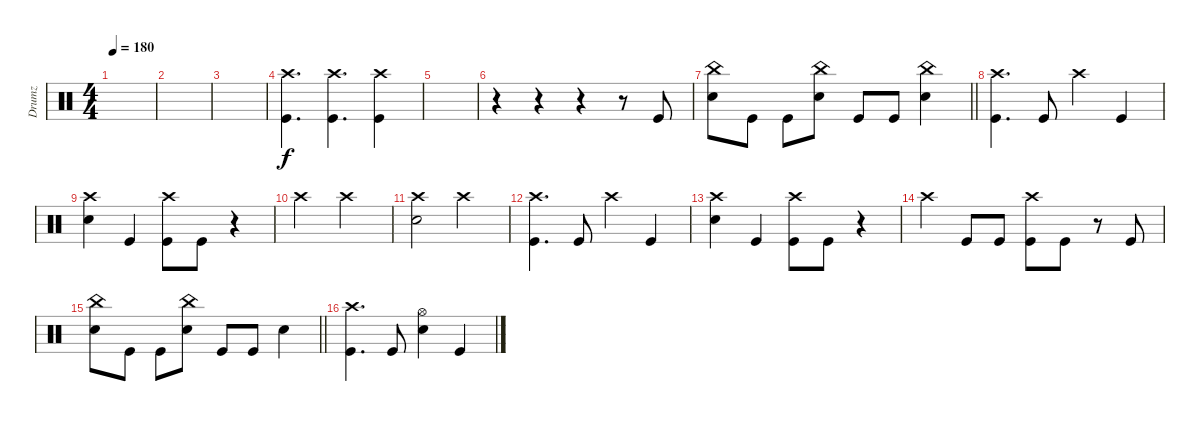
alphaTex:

\track ("Drumz" "Drumz") {instrument percussion}
\staff {score}
\articulation defaults
\ts (4 4)
\tempo 180
\clef neutral
\ks c
|
|
|
("Crash high (hit)" "Kick (hit)").4{d} ("Crash high (hit)" "Kick (hit)").4{d} ("Crash high (hit)" "Kick (hit)").4 |
|
r.4 r.4 r.4 r.8 "Kick (hit)".8 |
\barLineRight lightlight
("China (hit)" "Electric Snare (hit)").8 "Kick (hit)".8 "Kick (hit)".8 ("China (hit)" "Electric Snare (hit)").8 "Kick (hit)".8 "Kick (hit)".8 ("China (hit)" "Electric Snare (hit)").4 |
\section ("" "")
("Crash high (hit)" "Kick (hit)").4{d} "Kick (hit)".8 "Crash high (hit)".4 "Kick (hit)".4 |
("Crash high (hit)" "Electric Snare (hit)").4 "Kick (hit)".4 ("Crash high (hit)" "Kick (hit)").8 "Kick (hit)".8 r.4 |
"Crash high (hit)".2 "Crash high (hit)".2 |
("Crash high (hit)" "Electric Snare (hit)").2 "Crash high (hit)".2 |
("Crash high (hit)" "Kick (hit)").4{d} "Kick (hit)".8 "Crash high (hit)".4 "Kick (hit)".4 |
("Crash high (hit)" "Electric Snare (hit)").4 "Kick (hit)".4 ("Crash high (hit)" "Kick (hit)").8 "Kick (hit)".8 r.4 |
"Crash high (hit)".4 "Kick (hit)".8 "Kick (hit)".8 ("Crash high (hit)" "Kick (hit)").8 "Kick (hit)".8 r.8 "Kick (hit)".8 |
\barLineRight lightlight
("China (hit)" "Electric Snare (hit)").8 "Kick (hit)".8 "Kick (hit)".8 ("China (hit)" "Electric Snare (hit)").8 "Kick (hit)".8 "Kick (hit)".8 "Electric Snare (hit)".4 |
\section ("" "")
("Crash high (hit)" "Kick (hit)").4{d} "Kick (hit)".8 ("Hi-Hat (open)" "Electric Snare (hit)").4 "Kick (hit)".4
